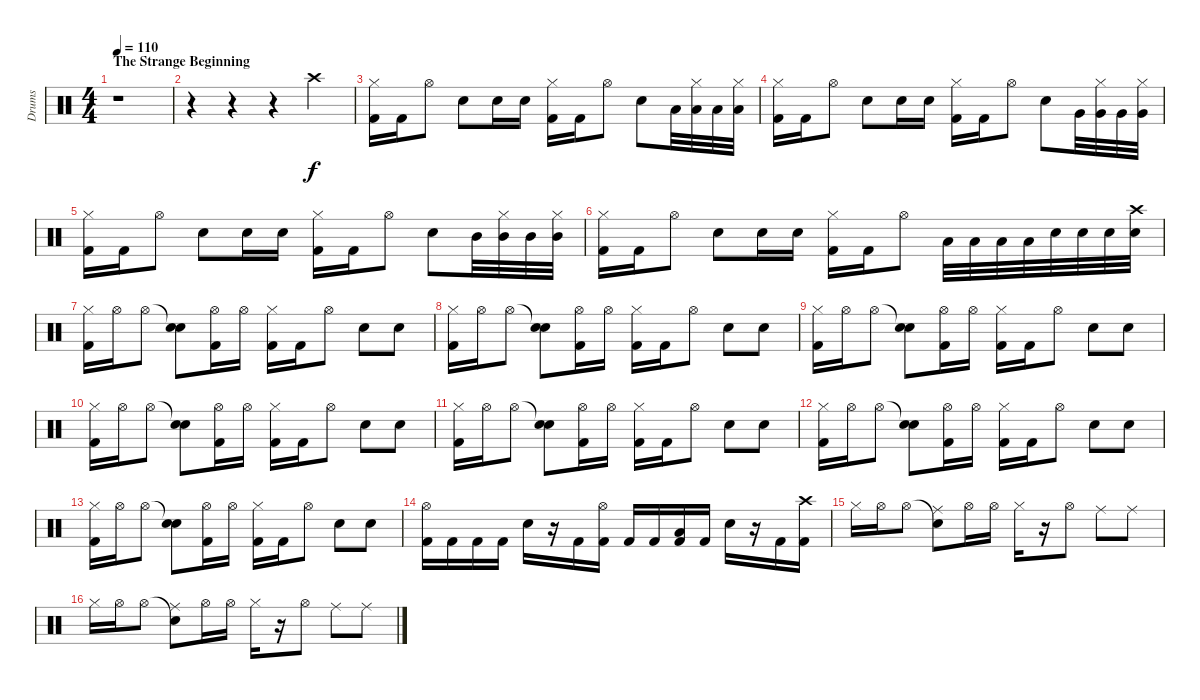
\track ("Drums" "Drums") {instrument percussion}
\staff {score}
\articulation defaults
\ts (4 4)
\section ("" "The Strange Beginning")
\tempo 110
\clef neutral
\ks c
r.1{dy f} |
r.4 r.4 r.4 "Crash high (hit)".4 |
("Hi-Hat (closed)" "Kick (hit) 2").16 "Kick (hit) 2".16 "Hi-Hat (open)".8 "Snare (hit) 2".8 "Snare (hit) 2".16 "Snare (hit) 2".16 ("Hi-Hat (closed)" "Kick (hit) 2").16 "Kick (hit) 2".16 "Hi-Hat (open)".8 "Snare (hit) 2".8 "Low Tom (hit)".32 ("Hi-Hat (closed)" "Low Tom (hit)").32 "Low Tom (hit)".32 ("Hi-Hat (closed)" "Low Tom (hit)").32 |
("Hi-Hat (closed)" "Kick (hit) 2").16 "Kick (hit) 2".16 "Hi-Hat (open)".8 "Snare (hit) 2".8 "Snare (hit) 2".16 "Snare (hit) 2".16 ("Hi-Hat (closed)" "Kick (hit) 2").16 "Kick (hit) 2".16 "Hi-Hat (open)".8 "Snare (hit) 2".8 "Very Low Tom (hit)".32 ("Hi-Hat (closed)" "Very Low Tom (hit)").32 "Very Low Tom (hit)".32 ("Hi-Hat (closed)" "Very Low Tom (hit)").32 |
("Hi-Hat (closed)" "Kick (hit) 2").16 "Kick (hit) 2".16 "Hi-Hat (open)".8 "Snare (hit) 2".8 "Snare (hit) 2".16 "Snare (hit) 2".16 ("Hi-Hat (closed)" "Kick (hit) 2").16 "Kick (hit) 2".16 "Hi-Hat (open)".8 "Snare (hit) 2".8 "Mid Tom (hit)".32 ("Hi-Hat (closed)" "Mid Tom (hit)").32 "Mid Tom (hit)".32 ("Hi-Hat (closed)" "Mid Tom (hit)").32 |
("Hi-Hat (closed)" "Kick (hit) 2").16 "Kick (hit) 2".16 "Hi-Hat (open)".8 "Snare (hit) 2".8 "Snare (hit) 2".16 "Snare (hit) 2".16 ("Hi-Hat (closed)" "Kick (hit) 2").16 "Kick (hit) 2".16 "Hi-Hat (open)".8 "Low Tom (hit)".32 "Low Tom (hit)".32 "Low Tom (hit)".32 "Low Tom (hit)".32 "Snare (hit) 2".32 "Snare (hit) 2".32 "Snare (hit) 2".32 ("Crash high (hit)" "Snare (hit) 2").32 |
("Hi-Hat (closed)" "Kick (hit) 2").16 "Hi-Hat (open)".16 "Hi-Hat (open)".8 ("Snare (hit)"{t} "Snare (hit) 2").8 ("Hi-Hat (open)" "Kick (hit) 2").16 "Hi-Hat (open)".16 ("Hi-Hat (closed)" "Kick (hit) 2").16 "Kick (hit) 2".16 "Hi-Hat (open)".8 "Snare (hit) 2".8 "Snare (hit) 2".8 |
("Hi-Hat (closed)" "Kick (hit) 2").16 "Hi-Hat (open)".16 "Hi-Hat (open)".8 ("Snare (hit)"{t} "Snare (hit) 2").8 ("Hi-Hat (open)" "Kick (hit) 2").16 "Hi-Hat (open)".16 ("Hi-Hat (closed)" "Kick (hit) 2").16 "Kick (hit) 2".16 "Hi-Hat (open)".8 "Snare (hit) 2".8 "Snare (hit) 2".8 |
("Hi-Hat (closed)" "Kick (hit) 2").16 "Hi-Hat (open)".16 "Hi-Hat (open)".8 ("Snare (hit)"{t} "Snare (hit) 2").8 ("Hi-Hat (open)" "Kick (hit) 2").16 "Hi-Hat (open)".16 ("Hi-Hat (closed)" "Kick (hit) 2").16 "Kick (hit) 2".16 "Hi-Hat (open)".8 "Snare (hit) 2".8 "Snare (hit) 2".8 |
("Hi-Hat (closed)" "Kick (hit) 2").16 "Hi-Hat (open)".16 "Hi-Hat (open)".8 ("Snare (hit)"{t} "Snare (hit) 2").8 ("Hi-Hat (open)" "Kick (hit) 2").16 "Hi-Hat (open)".16 ("Hi-Hat (closed)" "Kick (hit) 2").16 "Kick (hit) 2".16 "Hi-Hat (open)".8 "Snare (hit) 2".8 "Snare (hit) 2".8 |
("Hi-Hat (closed)" "Kick (hit) 2").16 "Hi-Hat (open)".16 "Hi-Hat (open)".8 ("Snare (hit)"{t} "Snare (hit) 2").8 ("Hi-Hat (open)" "Kick (hit) 2").16 "Hi-Hat (open)".16 ("Hi-Hat (closed)" "Kick (hit) 2").16 "Kick (hit) 2".16 "Hi-Hat (open)".8 "Snare (hit) 2".8 "Snare (hit) 2".8 |
("Hi-Hat (closed)" "Kick (hit) 2").16 "Hi-Hat (open)".16 "Hi-Hat (open)".8 ("Snare (hit)"{t} "Snare (hit) 2").8 ("Hi-Hat (open)" "Kick (hit) 2").16 "Hi-Hat (open)".16 ("Hi-Hat (closed)" "Kick (hit) 2").16 "Kick (hit) 2".16 "Hi-Hat (open)".8 "Snare (hit) 2".8 "Snare (hit) 2".8 |
("Hi-Hat (closed)" "Kick (hit) 2").16 "Hi-Hat (open)".16 "Hi-Hat (open)".8 ("Snare (hit)"{t} "Snare (hit) 2").8 ("Hi-Hat (open)" "Kick (hit) 2").16 "Hi-Hat (open)".16 ("Hi-Hat (closed)" "Kick (hit) 2").16 "Kick (hit) 2".16 "Hi-Hat (open)".8 "Snare (hit) 2".8 "Snare (hit) 2".8 |
("Hi-Hat (open)" "Kick (hit) 2").16 "Kick (hit) 2".16 "Kick (hit) 2".16 "Kick (hit) 2".16 "Snare (hit) 2".16 r.16 "Kick (hit) 2".16 ("Hi-Hat (open)" "Kick (hit) 2").16 "Kick (hit) 2".16 "Kick (hit) 2".16 ("Low Tom (hit)" "Kick (hit) 2").16 "Kick (hit) 2".16 "Snare (hit) 2".16 r.16 "Kick (hit) 2".16 ("Crash high (hit)" "Kick (hit) 2").16 |
"Hi-Hat (closed)".16 "Hi-Hat (open)".16 "Hi-Hat (open)".8 ("Snare (hit)"{t} "Ride (middle)").8 "Hi-Hat (open)".16 "Hi-Hat (open)".16 "Hi-Hat (closed)".16 r.16 "Hi-Hat (open)".8 "Ride (middle)".8 "Ride (middle)".8 |
"Hi-Hat (closed)".16 "Hi-Hat (open)".16 "Hi-Hat (open)".8 ("Snare (hit)"{t} "Ride (middle)").8 "Hi-Hat (open)".16 "Hi-Hat (open)".16 "Hi-Hat (closed)".16 r.16 "Hi-Hat (open)".8 "Ride (middle)".8 "Ride (middle)".8
